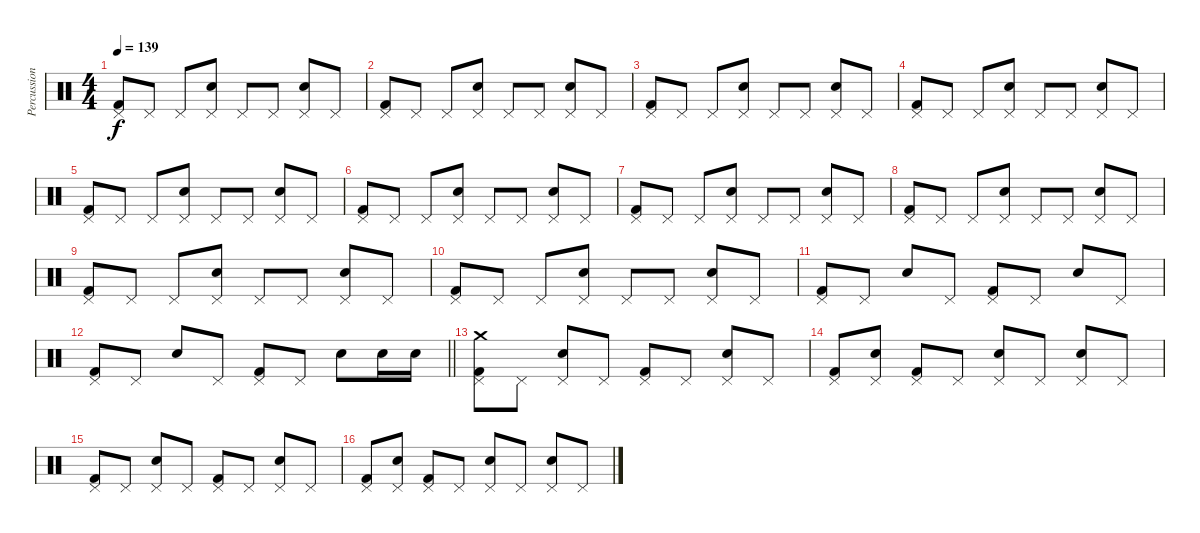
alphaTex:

\track ("Percussion" "Percussion") {instrument percussion}
\staff {score}
\articulation defaults
\ts (4 4)
\tempo 139
\clef neutral
\ks c
("Pedal Hi-Hat (hit)" "Kick (hit) 2").8{dy f} "Pedal Hi-Hat (hit)".8 "Pedal Hi-Hat (hit)".8 ("Snare (hit) 2" "Pedal Hi-Hat (hit)").8 "Pedal Hi-Hat (hit)".8 "Pedal Hi-Hat (hit)".8 ("Snare (hit) 2" "Pedal Hi-Hat (hit)").8 "Pedal Hi-Hat (hit)".8 |
("Pedal Hi-Hat (hit)" "Kick (hit) 2").8 "Pedal Hi-Hat (hit)".8 "Pedal Hi-Hat (hit)".8 ("Snare (hit) 2" "Pedal Hi-Hat (hit)").8 "Pedal Hi-Hat (hit)".8 "Pedal Hi-Hat (hit)".8 ("Snare (hit) 2" "Pedal Hi-Hat (hit)").8 "Pedal Hi-Hat (hit)".8 |
("Pedal Hi-Hat (hit)" "Kick (hit) 2").8 "Pedal Hi-Hat (hit)".8 "Pedal Hi-Hat (hit)".8 ("Snare (hit) 2" "Pedal Hi-Hat (hit)").8 "Pedal Hi-Hat (hit)".8 "Pedal Hi-Hat (hit)".8 ("Snare (hit) 2" "Pedal Hi-Hat (hit)").8 "Pedal Hi-Hat (hit)".8 |
("Pedal Hi-Hat (hit)" "Kick (hit) 2").8 "Pedal Hi-Hat (hit)".8 "Pedal Hi-Hat (hit)".8 ("Snare (hit) 2" "Pedal Hi-Hat (hit)").8 "Pedal Hi-Hat (hit)".8 "Pedal Hi-Hat (hit)".8 ("Snare (hit) 2" "Pedal Hi-Hat (hit)").8 "Pedal Hi-Hat (hit)".8 |
("Pedal Hi-Hat (hit)" "Kick (hit) 2").8 "Pedal Hi-Hat (hit)".8 "Pedal Hi-Hat (hit)".8 ("Snare (hit) 2" "Pedal Hi-Hat (hit)").8 "Pedal Hi-Hat (hit)".8 "Pedal Hi-Hat (hit)".8 ("Snare (hit) 2" "Pedal Hi-Hat (hit)").8 "Pedal Hi-Hat (hit)".8 |
("Pedal Hi-Hat (hit)" "Kick (hit) 2").8 "Pedal Hi-Hat (hit)".8 "Pedal Hi-Hat (hit)".8 ("Snare (hit) 2" "Pedal Hi-Hat (hit)").8 "Pedal Hi-Hat (hit)".8 "Pedal Hi-Hat (hit)".8 ("Snare (hit) 2" "Pedal Hi-Hat (hit)").8 "Pedal Hi-Hat (hit)".8 |
("Pedal Hi-Hat (hit)" "Kick (hit) 2").8 "Pedal Hi-Hat (hit)".8 "Pedal Hi-Hat (hit)".8 ("Snare (hit) 2" "Pedal Hi-Hat (hit)").8 "Pedal Hi-Hat (hit)".8 "Pedal Hi-Hat (hit)".8 ("Snare (hit) 2" "Pedal Hi-Hat (hit)").8 "Pedal Hi-Hat (hit)".8 |
("Pedal Hi-Hat (hit)" "Kick (hit) 2").8 "Pedal Hi-Hat (hit)".8 "Pedal Hi-Hat (hit)".8 ("Snare (hit) 2" "Pedal Hi-Hat (hit)").8 "Pedal Hi-Hat (hit)".8 "Pedal Hi-Hat (hit)".8 ("Snare (hit) 2" "Pedal Hi-Hat (hit)").8 "Pedal Hi-Hat (hit)".8 |
("Pedal Hi-Hat (hit)" "Kick (hit) 2").8 "Pedal Hi-Hat (hit)".8 "Pedal Hi-Hat (hit)".8 ("Snare (hit) 2" "Pedal Hi-Hat (hit)").8 "Pedal Hi-Hat (hit)".8 "Pedal Hi-Hat (hit)".8 ("Snare (hit) 2" "Pedal Hi-Hat (hit)").8 "Pedal Hi-Hat (hit)".8 |
("Pedal Hi-Hat (hit)" "Kick (hit) 2").8 "Pedal Hi-Hat (hit)".8 "Pedal Hi-Hat (hit)".8 ("Snare (hit) 2" "Pedal Hi-Hat (hit)").8 "Pedal Hi-Hat (hit)".8 "Pedal Hi-Hat (hit)".8 ("Snare (hit) 2" "Pedal Hi-Hat (hit)").8 "Pedal Hi-Hat (hit)".8 |
("Pedal Hi-Hat (hit)" "Kick (hit) 2").8 "Pedal Hi-Hat (hit)".8 "Snare (hit) 2".8 "Pedal Hi-Hat (hit)".8 ("Pedal Hi-Hat (hit)" "Kick (hit) 2").8 "Pedal Hi-Hat (hit)".8 "Snare (hit) 2".8 "Pedal Hi-Hat (hit)".8 |
\barLineRight lightlight
("Pedal Hi-Hat (hit)" "Kick (hit) 2").8 "Pedal Hi-Hat (hit)".8 "Snare (hit) 2".8 "Pedal Hi-Hat (hit)".8 ("Pedal Hi-Hat (hit)" "Kick (hit) 2").8 "Pedal Hi-Hat (hit)".8 "Snare (hit) 2".8 "Snare (hit) 2".16 "Snare (hit) 2".16 |
("Crash medium (hit)" "Kick (hit) 2" "Pedal Hi-Hat (hit)").8 "Pedal Hi-Hat (hit)".8 ("Snare (hit) 2" "Pedal Hi-Hat (hit)").8 "Pedal Hi-Hat (hit)".8 ("Kick (hit) 2" "Pedal Hi-Hat (hit)").8 "Pedal Hi-Hat (hit)".8 ("Snare (hit) 2" "Pedal Hi-Hat (hit)").8 "Pedal Hi-Hat (hit)".8 |
("Kick (hit) 2" "Pedal Hi-Hat (hit)").8 ("Snare (hit) 2" "Pedal Hi-Hat (hit)").8 ("Kick (hit) 2" "Pedal Hi-Hat (hit)").8 "Pedal Hi-Hat (hit)".8 ("Snare (hit) 2" "Pedal Hi-Hat (hit)").8 "Pedal Hi-Hat (hit)".8 ("Snare (hit) 2" "Pedal Hi-Hat (hit)").8 "Pedal Hi-Hat (hit)".8 |
("Kick (hit) 2" "Pedal Hi-Hat (hit)").8 "Pedal Hi-Hat (hit)".8 ("Snare (hit) 2" "Pedal Hi-Hat (hit)").8 "Pedal Hi-Hat (hit)".8 ("Kick (hit) 2" "Pedal Hi-Hat (hit)").8 "Pedal Hi-Hat (hit)".8 ("Snare (hit) 2" "Pedal Hi-Hat (hit)").8 "Pedal Hi-Hat (hit)".8 |
("Kick (hit) 2" "Pedal Hi-Hat (hit)").8 ("Snare (hit) 2" "Pedal Hi-Hat (hit)").8 ("Kick (hit) 2" "Pedal Hi-Hat (hit)").8 "Pedal Hi-Hat (hit)".8 ("Snare (hit) 2" "Pedal Hi-Hat (hit)").8 "Pedal Hi-Hat (hit)".8 ("Snare (hit) 2" "Pedal Hi-Hat (hit)").8 "Pedal Hi-Hat (hit)".8
